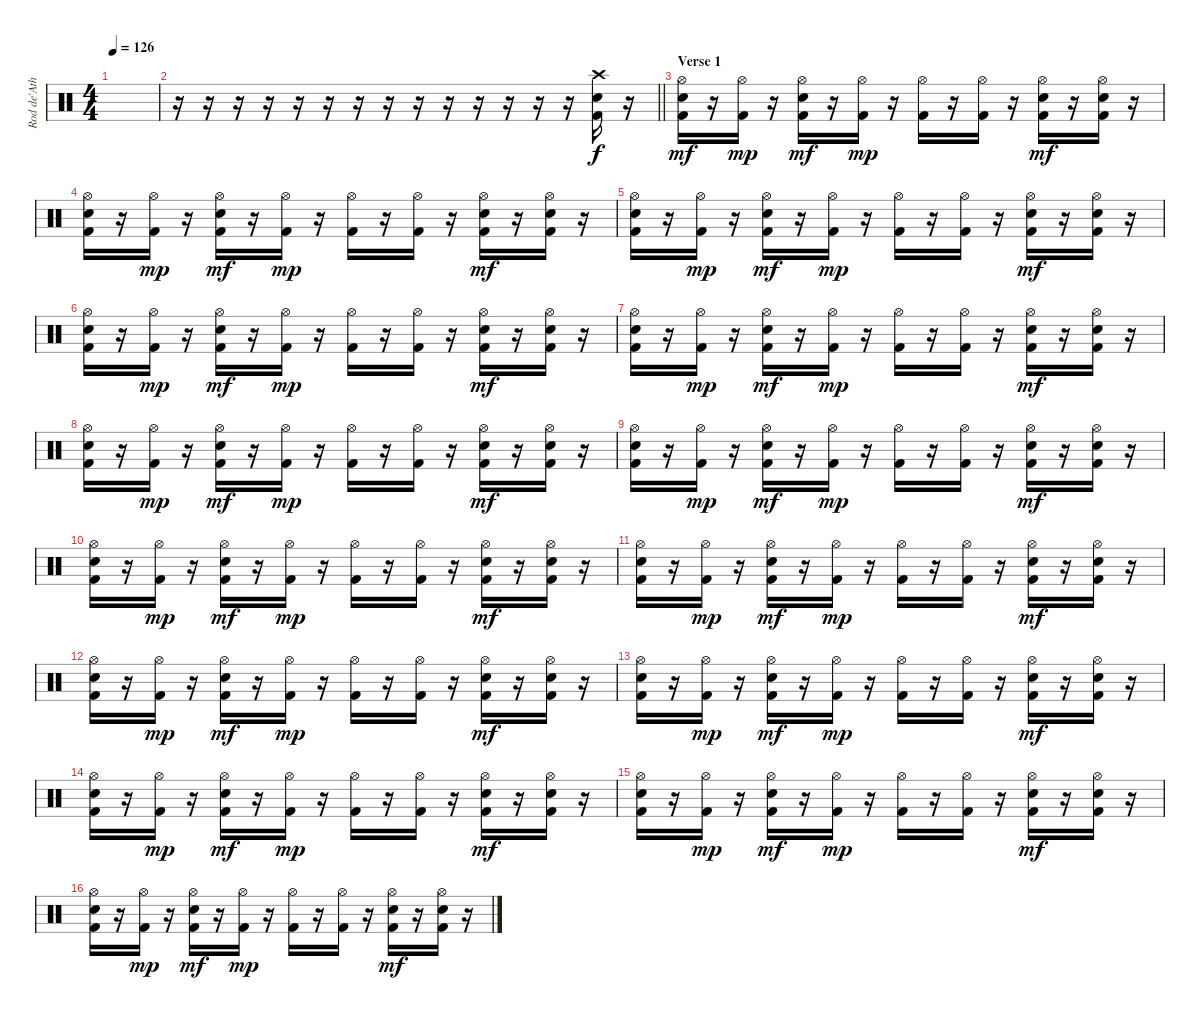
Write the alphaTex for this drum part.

\track ("Rod de'Ath" "Rod de'Ath") {instrument percussion}
\staff {score}
\articulation defaults
\ts (4 4)
\tempo 126
\clef neutral
\ks c
|
\barLineRight lightlight
r.16 r.16 r.16 r.16 r.16 r.16 r.16 r.16 r.16 r.16 r.16 r.16 r.16 r.16 ("Crash high (hit)" "Snare (hit) 2" "Kick (hit) 2").16 r.16 |
\section ("" "Verse 1")
("Hi-Hat (open)" "Snare (hit) 2" "Kick (hit) 2").16{dy mf} r.16 ("Hi-Hat (open)" "Kick (hit) 2").16{dy mp} r.16 ("Hi-Hat (open)" "Snare (hit) 2" "Kick (hit) 2").16{dy mf} r.16 ("Hi-Hat (open)" "Kick (hit) 2").16{dy mp} r.16 ("Hi-Hat (open)" "Kick (hit) 2").16 r.16 ("Hi-Hat (open)" "Kick (hit) 2").16 r.16 ("Hi-Hat (open)" "Snare (hit) 2" "Kick (hit) 2").16{dy mf} r.16 ("Hi-Hat (open)" "Electric Snare (hit)" "Kick (hit) 2").16 r.16 |
("Hi-Hat (open)" "Snare (hit) 2" "Kick (hit) 2").16 r.16 ("Hi-Hat (open)" "Kick (hit) 2").16{dy mp} r.16 ("Hi-Hat (open)" "Snare (hit) 2" "Kick (hit) 2").16{dy mf} r.16 ("Hi-Hat (open)" "Kick (hit) 2").16{dy mp} r.16 ("Hi-Hat (open)" "Kick (hit) 2").16 r.16 ("Hi-Hat (open)" "Kick (hit) 2").16 r.16 ("Hi-Hat (open)" "Snare (hit) 2" "Kick (hit) 2").16{dy mf} r.16 ("Hi-Hat (open)" "Electric Snare (hit)" "Kick (hit) 2").16 r.16 |
("Hi-Hat (open)" "Snare (hit) 2" "Kick (hit) 2").16 r.16 ("Hi-Hat (open)" "Kick (hit) 2").16{dy mp} r.16 ("Hi-Hat (open)" "Snare (hit) 2" "Kick (hit) 2").16{dy mf} r.16 ("Hi-Hat (open)" "Kick (hit) 2").16{dy mp} r.16 ("Hi-Hat (open)" "Kick (hit) 2").16 r.16 ("Hi-Hat (open)" "Kick (hit) 2").16 r.16 ("Hi-Hat (open)" "Snare (hit) 2" "Kick (hit) 2").16{dy mf} r.16 ("Hi-Hat (open)" "Electric Snare (hit)" "Kick (hit) 2").16 r.16 |
("Hi-Hat (open)" "Snare (hit) 2" "Kick (hit) 2").16 r.16 ("Hi-Hat (open)" "Kick (hit) 2").16{dy mp} r.16 ("Hi-Hat (open)" "Snare (hit) 2" "Kick (hit) 2").16{dy mf} r.16 ("Hi-Hat (open)" "Kick (hit) 2").16{dy mp} r.16 ("Hi-Hat (open)" "Kick (hit) 2").16 r.16 ("Hi-Hat (open)" "Kick (hit) 2").16 r.16 ("Hi-Hat (open)" "Snare (hit) 2" "Kick (hit) 2").16{dy mf} r.16 ("Hi-Hat (open)" "Electric Snare (hit)" "Kick (hit) 2").16 r.16 |
("Hi-Hat (open)" "Snare (hit) 2" "Kick (hit) 2").16 r.16 ("Hi-Hat (open)" "Kick (hit) 2").16{dy mp} r.16 ("Hi-Hat (open)" "Snare (hit) 2" "Kick (hit) 2").16{dy mf} r.16 ("Hi-Hat (open)" "Kick (hit) 2").16{dy mp} r.16 ("Hi-Hat (open)" "Kick (hit) 2").16 r.16 ("Hi-Hat (open)" "Kick (hit) 2").16 r.16 ("Hi-Hat (open)" "Snare (hit) 2" "Kick (hit) 2").16{dy mf} r.16 ("Hi-Hat (open)" "Electric Snare (hit)" "Kick (hit) 2").16 r.16 |
("Hi-Hat (open)" "Snare (hit) 2" "Kick (hit) 2").16 r.16 ("Hi-Hat (open)" "Kick (hit) 2").16{dy mp} r.16 ("Hi-Hat (open)" "Snare (hit) 2" "Kick (hit) 2").16{dy mf} r.16 ("Hi-Hat (open)" "Kick (hit) 2").16{dy mp} r.16 ("Hi-Hat (open)" "Kick (hit) 2").16 r.16 ("Hi-Hat (open)" "Kick (hit) 2").16 r.16 ("Hi-Hat (open)" "Snare (hit) 2" "Kick (hit) 2").16{dy mf} r.16 ("Hi-Hat (open)" "Electric Snare (hit)" "Kick (hit) 2").16 r.16 |
("Hi-Hat (open)" "Snare (hit) 2" "Kick (hit) 2").16 r.16 ("Hi-Hat (open)" "Kick (hit) 2").16{dy mp} r.16 ("Hi-Hat (open)" "Snare (hit) 2" "Kick (hit) 2").16{dy mf} r.16 ("Hi-Hat (open)" "Kick (hit) 2").16{dy mp} r.16 ("Hi-Hat (open)" "Kick (hit) 2").16 r.16 ("Hi-Hat (open)" "Kick (hit) 2").16 r.16 ("Hi-Hat (open)" "Snare (hit) 2" "Kick (hit) 2").16{dy mf} r.16 ("Hi-Hat (open)" "Electric Snare (hit)" "Kick (hit) 2").16 r.16 |
("Hi-Hat (open)" "Snare (hit) 2" "Kick (hit) 2").16 r.16 ("Hi-Hat (open)" "Kick (hit) 2").16{dy mp} r.16 ("Hi-Hat (open)" "Snare (hit) 2" "Kick (hit) 2").16{dy mf} r.16 ("Hi-Hat (open)" "Kick (hit) 2").16{dy mp} r.16 ("Hi-Hat (open)" "Kick (hit) 2").16 r.16 ("Hi-Hat (open)" "Kick (hit) 2").16 r.16 ("Hi-Hat (open)" "Snare (hit) 2" "Kick (hit) 2").16{dy mf} r.16 ("Hi-Hat (open)" "Electric Snare (hit)" "Kick (hit) 2").16 r.16 |
("Hi-Hat (open)" "Snare (hit) 2" "Kick (hit) 2").16 r.16 ("Hi-Hat (open)" "Kick (hit) 2").16{dy mp} r.16 ("Hi-Hat (open)" "Snare (hit) 2" "Kick (hit) 2").16{dy mf} r.16 ("Hi-Hat (open)" "Kick (hit) 2").16{dy mp} r.16 ("Hi-Hat (open)" "Kick (hit) 2").16 r.16 ("Hi-Hat (open)" "Kick (hit) 2").16 r.16 ("Hi-Hat (open)" "Snare (hit) 2" "Kick (hit) 2").16{dy mf} r.16 ("Hi-Hat (open)" "Electric Snare (hit)" "Kick (hit) 2").16 r.16 |
("Hi-Hat (open)" "Snare (hit) 2" "Kick (hit) 2").16 r.16 ("Hi-Hat (open)" "Kick (hit) 2").16{dy mp} r.16 ("Hi-Hat (open)" "Snare (hit) 2" "Kick (hit) 2").16{dy mf} r.16 ("Hi-Hat (open)" "Kick (hit) 2").16{dy mp} r.16 ("Hi-Hat (open)" "Kick (hit) 2").16 r.16 ("Hi-Hat (open)" "Kick (hit) 2").16 r.16 ("Hi-Hat (open)" "Snare (hit) 2" "Kick (hit) 2").16{dy mf} r.16 ("Hi-Hat (open)" "Electric Snare (hit)" "Kick (hit) 2").16 r.16 |
("Hi-Hat (open)" "Snare (hit) 2" "Kick (hit) 2").16 r.16 ("Hi-Hat (open)" "Kick (hit) 2").16{dy mp} r.16 ("Hi-Hat (open)" "Snare (hit) 2" "Kick (hit) 2").16{dy mf} r.16 ("Hi-Hat (open)" "Kick (hit) 2").16{dy mp} r.16 ("Hi-Hat (open)" "Kick (hit) 2").16 r.16 ("Hi-Hat (open)" "Kick (hit) 2").16 r.16 ("Hi-Hat (open)" "Snare (hit) 2" "Kick (hit) 2").16{dy mf} r.16 ("Hi-Hat (open)" "Electric Snare (hit)" "Kick (hit) 2").16 r.16 |
("Hi-Hat (open)" "Snare (hit) 2" "Kick (hit) 2").16 r.16 ("Hi-Hat (open)" "Kick (hit) 2").16{dy mp} r.16 ("Hi-Hat (open)" "Snare (hit) 2" "Kick (hit) 2").16{dy mf} r.16 ("Hi-Hat (open)" "Kick (hit) 2").16{dy mp} r.16 ("Hi-Hat (open)" "Kick (hit) 2").16 r.16 ("Hi-Hat (open)" "Kick (hit) 2").16 r.16 ("Hi-Hat (open)" "Snare (hit) 2" "Kick (hit) 2").16{dy mf} r.16 ("Hi-Hat (open)" "Electric Snare (hit)" "Kick (hit) 2").16 r.16 |
("Hi-Hat (open)" "Snare (hit) 2" "Kick (hit) 2").16 r.16 ("Hi-Hat (open)" "Kick (hit) 2").16{dy mp} r.16 ("Hi-Hat (open)" "Snare (hit) 2" "Kick (hit) 2").16{dy mf} r.16 ("Hi-Hat (open)" "Kick (hit) 2").16{dy mp} r.16 ("Hi-Hat (open)" "Kick (hit) 2").16 r.16 ("Hi-Hat (open)" "Kick (hit) 2").16 r.16 ("Hi-Hat (open)" "Snare (hit) 2" "Kick (hit) 2").16{dy mf} r.16 ("Hi-Hat (open)" "Electric Snare (hit)" "Kick (hit) 2").16 r.16 |
("Hi-Hat (open)" "Snare (hit) 2" "Kick (hit) 2").16 r.16 ("Hi-Hat (open)" "Kick (hit) 2").16{dy mp} r.16 ("Hi-Hat (open)" "Snare (hit) 2" "Kick (hit) 2").16{dy mf} r.16 ("Hi-Hat (open)" "Kick (hit) 2").16{dy mp} r.16 ("Hi-Hat (open)" "Kick (hit) 2").16 r.16 ("Hi-Hat (open)" "Kick (hit) 2").16 r.16 ("Hi-Hat (open)" "Snare (hit) 2" "Kick (hit) 2").16{dy mf} r.16 ("Hi-Hat (open)" "Electric Snare (hit)" "Kick (hit) 2").16 r.16
